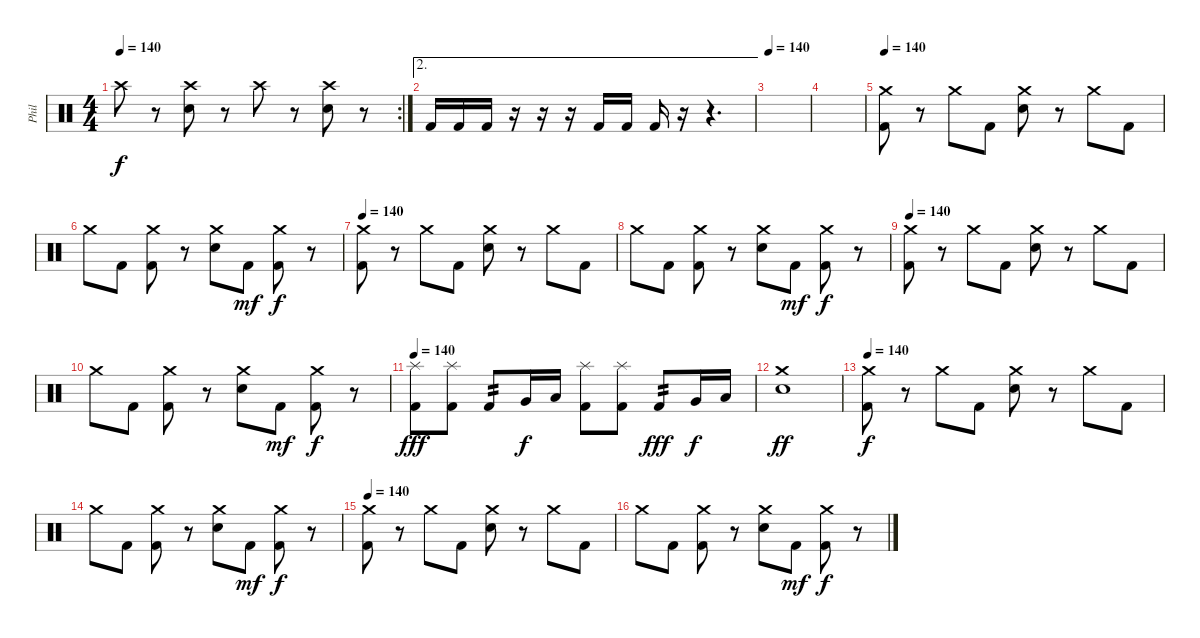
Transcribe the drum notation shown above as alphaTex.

\track ("Phil" "Phil") {instrument percussion}
\staff {score}
\articulation defaults
\rc 2
\ts (4 4)
\tempo 140
\clef neutral
\ks c "Crash high (hit)".8{dy f}
r.8 ("Crash high (hit)" "Electric Snare (hit)").8 r.8 "Crash high (hit)".8 r.8 ("Crash high (hit)" "Electric Snare (hit)").8 r.8 |
\ae 2 "Kick (hit) 2".16 "Kick (hit) 2".16 "Kick (hit) 2".16
r.16 r.16 r.16 "Kick (hit) 2".16 "Kick (hit) 2".16 "Kick (hit) 2".16 r.16 r.4{d} |
\tempo 140
|
|
\tempo 140
("Crash medium (hit)" "Kick (hit) 2").8 r.8 "Crash medium (hit)".8 "Kick (hit) 2".8 ("Crash medium (hit)" "Snare (hit) 2").8 r.8 "Crash medium (hit)".8 "Kick (hit) 2".8 |
"Crash medium (hit)".8 "Kick (hit) 2".8 ("Crash medium (hit)" "Kick (hit) 2").8 r.8 ("Crash medium (hit)" "Snare (hit) 2").8 "Kick (hit) 2".8{dy mf} ("Crash medium (hit)" "Kick (hit) 2").8{dy f} r.8 |
\tempo 140
("Crash medium (hit)" "Kick (hit) 2").8 r.8 "Crash medium (hit)".8 "Kick (hit) 2".8 ("Crash medium (hit)" "Snare (hit) 2").8 r.8 "Crash medium (hit)".8 "Kick (hit) 2".8 |
"Crash medium (hit)".8 "Kick (hit) 2".8 ("Crash medium (hit)" "Kick (hit) 2").8 r.8 ("Crash medium (hit)" "Snare (hit) 2").8 "Kick (hit) 2".8{dy mf} ("Crash medium (hit)" "Kick (hit) 2").8{dy f} r.8 |
\tempo 140
("Crash medium (hit)" "Kick (hit) 2").8 r.8 "Crash medium (hit)".8 "Kick (hit) 2".8 ("Crash medium (hit)" "Snare (hit) 2").8 r.8 "Crash medium (hit)".8 "Kick (hit) 2".8 |
"Crash medium (hit)".8 "Kick (hit) 2".8 ("Crash medium (hit)" "Kick (hit) 2").8 r.8 ("Crash medium (hit)" "Snare (hit) 2").8 "Kick (hit) 2".8{dy mf} ("Crash medium (hit)" "Kick (hit) 2").8{dy f} r.8 |
\tempo 140
("Splash (hit)" "Kick (hit) 2").8{dy fff} ("Splash (hit)" "Kick (hit) 2").8 "Kick (hit) 2".8{tp 2} "Very Low Tom (hit)".16{dy f} "Low Floor Tom (hit)".16 ("Splash (hit)" "Kick (hit) 2").8 ("Splash (hit)" "Kick (hit) 2").8 "Kick (hit) 2".8{tp 2 dy fff} "Very Low Tom (hit)".16{dy f} "Low Floor Tom (hit)".16 |
("Crash medium (hit)" "Snare (hit) 2").1{dy ff} |
\tempo 140
("Crash medium (hit)" "Kick (hit) 2").8{dy f} r.8 "Crash medium (hit)".8 "Kick (hit) 2".8 ("Crash medium (hit)" "Snare (hit) 2").8 r.8 "Crash medium (hit)".8 "Kick (hit) 2".8 |
"Crash medium (hit)".8 "Kick (hit) 2".8 ("Crash medium (hit)" "Kick (hit) 2").8 r.8 ("Crash medium (hit)" "Snare (hit) 2").8 "Kick (hit) 2".8{dy mf} ("Crash medium (hit)" "Kick (hit) 2").8{dy f} r.8 |
\tempo 140
("Crash medium (hit)" "Kick (hit) 2").8 r.8 "Crash medium (hit)".8 "Kick (hit) 2".8 ("Crash medium (hit)" "Snare (hit) 2").8 r.8 "Crash medium (hit)".8 "Kick (hit) 2".8 |
"Crash medium (hit)".8 "Kick (hit) 2".8 ("Crash medium (hit)" "Kick (hit) 2").8 r.8 ("Crash medium (hit)" "Snare (hit) 2").8 "Kick (hit) 2".8{dy mf} ("Crash medium (hit)" "Kick (hit) 2").8{dy f} r.8
